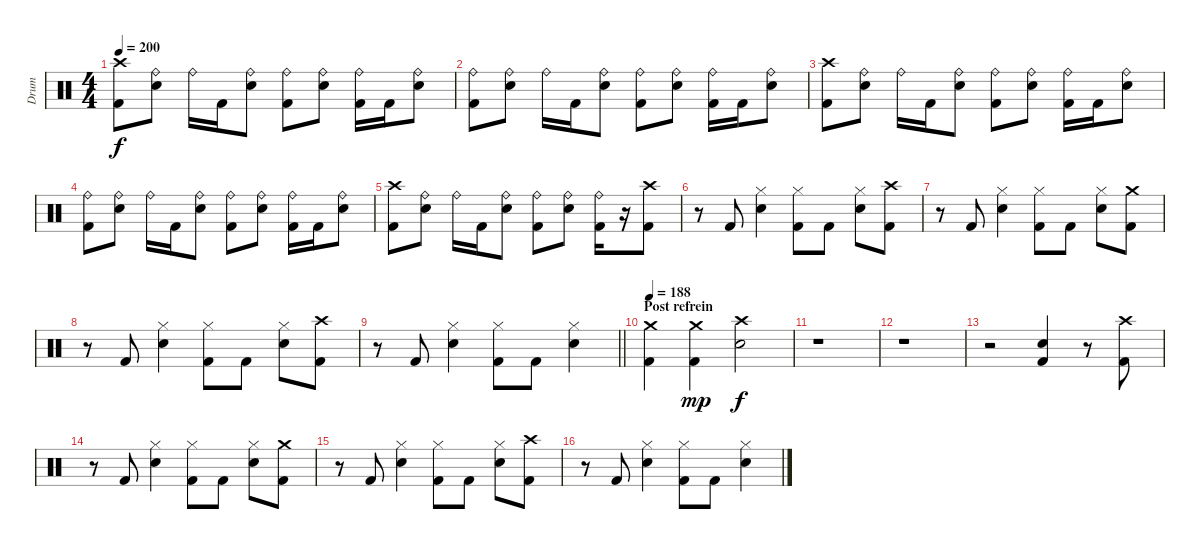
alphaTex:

\track ("Drum" "Drum") {instrument percussion}
\staff {score}
\articulation defaults
\ts (4 4)
\tempo 200
\clef neutral
\ks c
("Crash high (hit)" "Kick (hit) 2").8{dy f} ("Ride (bell)" "Snare (hit) 2").8 "Ride (bell)".16 "Kick (hit) 2".16 ("Ride (bell)" "Snare (hit) 2").8 ("Ride (bell)" "Kick (hit) 2").8 ("Ride (bell)" "Snare (hit) 2").8 ("Ride (bell)" "Kick (hit) 2").16 "Kick (hit) 2".16 ("Ride (bell)" "Snare (hit) 2").8 |
("Ride (bell)" "Kick (hit) 2").8 ("Ride (bell)" "Snare (hit) 2").8 "Ride (bell)".16 "Kick (hit) 2".16 ("Ride (bell)" "Snare (hit) 2").8 ("Ride (bell)" "Kick (hit) 2").8 ("Ride (bell)" "Snare (hit) 2").8 ("Ride (bell)" "Kick (hit) 2").16 "Kick (hit) 2".16 ("Ride (bell)" "Snare (hit) 2").8 |
("Crash high (hit)" "Kick (hit) 2").8 ("Ride (bell)" "Snare (hit) 2").8 "Ride (bell)".16 "Kick (hit) 2".16 ("Ride (bell)" "Snare (hit) 2").8 ("Ride (bell)" "Kick (hit) 2").8 ("Ride (bell)" "Snare (hit) 2").8 ("Ride (bell)" "Kick (hit) 2").16 "Kick (hit) 2".16 ("Ride (bell)" "Snare (hit) 2").8 |
("Ride (bell)" "Kick (hit) 2").8 ("Ride (bell)" "Snare (hit) 2").8 "Ride (bell)".16 "Kick (hit) 2".16 ("Ride (bell)" "Snare (hit) 2").8 ("Ride (bell)" "Kick (hit) 2").8 ("Ride (bell)" "Snare (hit) 2").8 ("Ride (bell)" "Kick (hit) 2").16 "Kick (hit) 2".16 ("Ride (bell)" "Snare (hit) 2").8 |
("Crash high (hit)" "Kick (hit) 2").8 ("Ride (bell)" "Snare (hit) 2").8 "Ride (bell)".16 "Kick (hit) 2".16 ("Ride (bell)" "Snare (hit) 2").8 ("Ride (bell)" "Kick (hit) 2").8 ("Ride (bell)" "Snare (hit) 2").8 ("Ride (bell)" "Kick (hit) 2").16 r.16 ("Crash high (hit)" "Kick (hit) 2").8 |
r.8 "Kick (hit) 2".8 ("Hi-Hat (closed)" "Snare (hit) 2").4 ("Hi-Hat (closed)" "Kick (hit) 2").8 "Kick (hit) 2".8 ("Hi-Hat (closed)" "Snare (hit) 2").8 ("Crash high (hit)" "Kick (hit) 2").8 |
r.8 "Kick (hit) 2".8 ("Hi-Hat (closed)" "Snare (hit) 2").4 ("Hi-Hat (closed)" "Kick (hit) 2").8 "Kick (hit) 2".8 ("Hi-Hat (closed)" "Snare (hit) 2").8 ("Crash medium (hit)" "Kick (hit) 2").8 |
r.8 "Kick (hit) 2".8 ("Hi-Hat (closed)" "Snare (hit) 2").4 ("Hi-Hat (closed)" "Kick (hit) 2").8 "Kick (hit) 2".8 ("Hi-Hat (closed)" "Snare (hit) 2").8 ("Crash high (hit)" "Kick (hit) 2").8 |
\barLineRight lightlight
r.8 "Kick (hit) 2".8 ("Hi-Hat (closed)" "Snare (hit) 2").4 ("Hi-Hat (closed)" "Kick (hit) 2").8 "Kick (hit) 2".8 ("Hi-Hat (closed)" "Snare (hit) 2").4 |
\section ("" "Post refrein")
\tempo 188
("Crash medium (hit)" "Kick (hit) 2").4 ("Crash medium (hit)" "Kick (hit) 2").4{dy mp} ("Crash high (hit)" "Snare (hit) 2").2{dy f} |
r.1 |
r.1 |
r.2 ("Snare (hit) 2" "Kick (hit) 2").4 r.8 ("Crash high (hit)" "Kick (hit) 2").8 |
r.8 "Kick (hit) 2".8 ("Hi-Hat (closed)" "Snare (hit) 2").4 ("Hi-Hat (closed)" "Kick (hit) 2").8 "Kick (hit) 2".8 ("Hi-Hat (closed)" "Snare (hit) 2").8 ("Crash medium (hit)" "Kick (hit) 2").8 |
r.8 "Kick (hit) 2".8 ("Hi-Hat (closed)" "Snare (hit) 2").4 ("Hi-Hat (closed)" "Kick (hit) 2").8 "Kick (hit) 2".8 ("Hi-Hat (closed)" "Snare (hit) 2").8 ("Crash high (hit)" "Kick (hit) 2").8 |
r.8 "Kick (hit) 2".8 ("Hi-Hat (closed)" "Snare (hit) 2").4 ("Hi-Hat (closed)" "Kick (hit) 2").8 "Kick (hit) 2".8 ("Hi-Hat (closed)" "Snare (hit) 2").4
